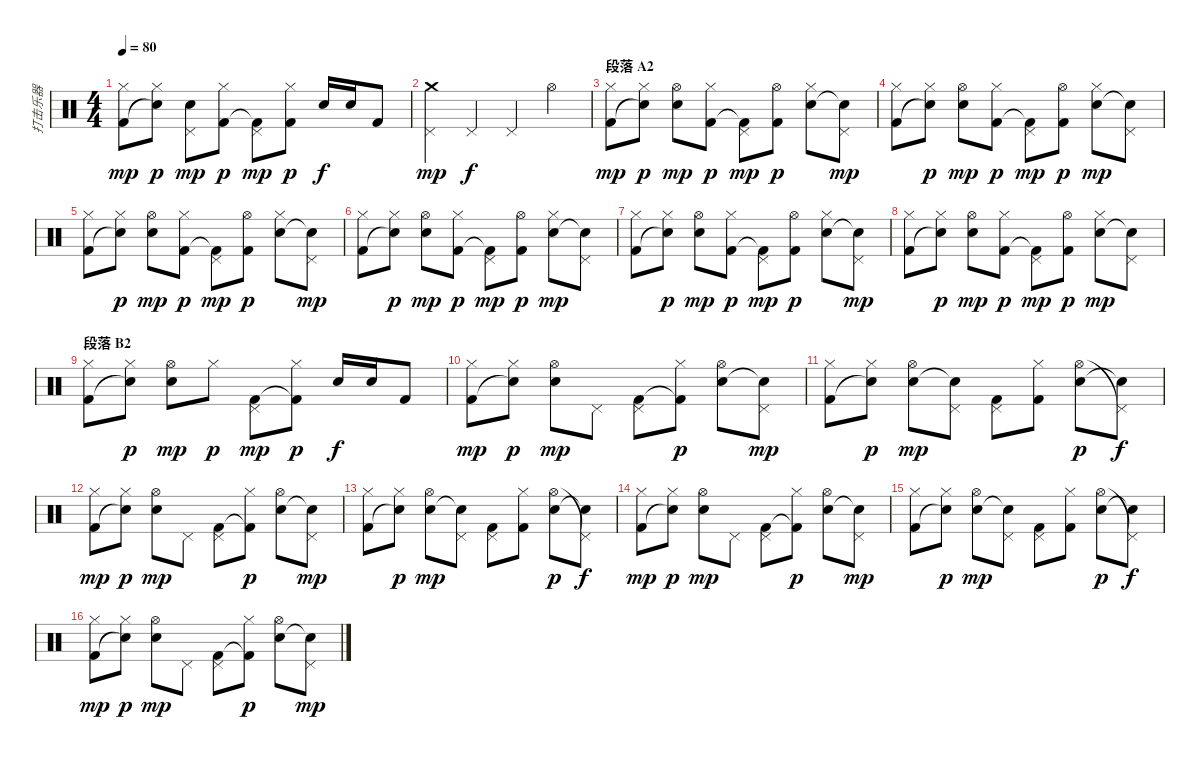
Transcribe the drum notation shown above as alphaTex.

\track ("打击乐器" "打击乐器") {instrument percussion}
\staff {score}
\articulation defaults
\ts (4 4)
\tempo 80
\clef neutral
\ks c
("Hi-Hat (closed)" "Kick (hit) 2").8{dy mp} ("Hi-Hat (closed)" "Snare (hit)"{t}).8{dy p} ("Pedal Hi-Hat (hit)" "Electric Snare (hit)").8{dy mp} ("Hi-Hat (closed)" "Kick (hit) 2").8{dy p} ("Pedal Hi-Hat (hit)" "Kick (hit) 2"{t}).8{dy mp} ("Hi-Hat (closed)" "Kick (hit) 2").8{dy p} "Electric Snare (hit)".16{dy f} "Electric Snare (hit)".16 "Kick (hit) 2".8 |
("Pedal Hi-Hat (hit)" "Crash medium (hit)").4{dy mp} "Pedal Hi-Hat (hit)".4{dy f} "Pedal Hi-Hat (hit)".4 "Hi-Hat (open)".4 |
\section ("" "段落 A2")
("Hi-Hat (closed)" "Kick (hit) 2").8{dy mp} ("Hi-Hat (closed)" "Snare (hit)"{t}).8{dy p} ("Hi-Hat (open)" "Electric Snare (hit)").8{dy mp} ("Hi-Hat (closed)" "Kick (hit) 2").8{dy p} ("Pedal Hi-Hat (hit)" "Kick (hit) 2"{t}).8{dy mp} ("Hi-Hat (open)" "Kick (hit) 2").8{dy p} ("Hi-Hat (closed)" "Electric Snare (hit)").8 ("Pedal Hi-Hat (hit)" "Snare (hit)"{t}).8{dy mp} |
("Hi-Hat (closed)" "Kick (hit) 2").8 ("Hi-Hat (closed)" "Snare (hit)"{t}).8{dy p} ("Hi-Hat (open)" "Electric Snare (hit)").8{dy mp} ("Hi-Hat (closed)" "Kick (hit) 2").8{dy p} ("Pedal Hi-Hat (hit)" "Kick (hit) 2"{t}).8{dy mp} ("Hi-Hat (open)" "Kick (hit) 2").8{dy p} ("Hi-Hat (closed)" "Electric Snare (hit)").8{dy mp} ("Pedal Hi-Hat (hit)" "Snare (hit)"{t}).8 |
("Hi-Hat (closed)" "Kick (hit) 2").8 ("Hi-Hat (closed)" "Snare (hit)"{t}).8{dy p} ("Hi-Hat (open)" "Electric Snare (hit)").8{dy mp} ("Hi-Hat (closed)" "Kick (hit) 2").8{dy p} ("Pedal Hi-Hat (hit)" "Kick (hit) 2"{t}).8{dy mp} ("Hi-Hat (open)" "Kick (hit) 2").8{dy p} ("Hi-Hat (closed)" "Electric Snare (hit)").8 ("Pedal Hi-Hat (hit)" "Snare (hit)"{t}).8{dy mp} |
("Hi-Hat (closed)" "Kick (hit) 2").8 ("Hi-Hat (closed)" "Snare (hit)"{t}).8{dy p} ("Hi-Hat (open)" "Electric Snare (hit)").8{dy mp} ("Hi-Hat (closed)" "Kick (hit) 2").8{dy p} ("Pedal Hi-Hat (hit)" "Kick (hit) 2"{t}).8{dy mp} ("Hi-Hat (open)" "Kick (hit) 2").8{dy p} ("Hi-Hat (closed)" "Electric Snare (hit)").8{dy mp} ("Pedal Hi-Hat (hit)" "Snare (hit)"{t}).8 |
("Hi-Hat (closed)" "Kick (hit) 2").8 ("Hi-Hat (closed)" "Snare (hit)"{t}).8{dy p} ("Hi-Hat (open)" "Electric Snare (hit)").8{dy mp} ("Hi-Hat (closed)" "Kick (hit) 2").8{dy p} ("Pedal Hi-Hat (hit)" "Kick (hit) 2"{t}).8{dy mp} ("Hi-Hat (open)" "Kick (hit) 2").8{dy p} ("Hi-Hat (closed)" "Electric Snare (hit)").8 ("Pedal Hi-Hat (hit)" "Snare (hit)"{t}).8{dy mp} |
("Hi-Hat (closed)" "Kick (hit) 2").8 ("Hi-Hat (closed)" "Snare (hit)"{t}).8{dy p} ("Hi-Hat (open)" "Electric Snare (hit)").8{dy mp} ("Hi-Hat (closed)" "Kick (hit) 2").8{dy p} ("Pedal Hi-Hat (hit)" "Kick (hit) 2"{t}).8{dy mp} ("Hi-Hat (open)" "Kick (hit) 2").8{dy p} ("Hi-Hat (closed)" "Electric Snare (hit)").8{dy mp} ("Pedal Hi-Hat (hit)" "Snare (hit)"{t}).8 |
\section ("" "段落 B2")
("Hi-Hat (closed)" "Kick (hit) 2").8 ("Hi-Hat (closed)" "Snare (hit)"{t}).8{dy p} ("Hi-Hat (open)" "Electric Snare (hit)").8{dy mp} "Hi-Hat (closed)".8{dy p} ("Pedal Hi-Hat (hit)" "Kick (hit) 2").8{dy mp} ("Hi-Hat (closed)" "Kick (hit) 2"{t}).8{dy p} "Electric Snare (hit)".16{dy f} "Electric Snare (hit)".16 "Kick (hit) 2".8 |
("Hi-Hat (closed)" "Kick (hit) 2").8{dy mp} ("Hi-Hat (closed)" "Snare (hit)"{t}).8{dy p} ("Hi-Hat (open)" "Electric Snare (hit)").8{dy mp} "Pedal Hi-Hat (hit)".8 ("Pedal Hi-Hat (hit)" "Kick (hit) 2").8 ("Hi-Hat (closed)" "Kick (hit) 2"{t}).8{dy p} ("Hi-Hat (open)" "Electric Snare (hit)").8 ("Pedal Hi-Hat (hit)" "Snare (hit)"{t}).8{dy mp} |
\section ("" "")
("Hi-Hat (closed)" "Kick (hit) 2").8 ("Hi-Hat (closed)" "Snare (hit)"{t}).8{dy p} ("Hi-Hat (open)" "Electric Snare (hit)").8{dy mp} ("Pedal Hi-Hat (hit)" "Snare (hit)"{t}).8 ("Pedal Hi-Hat (hit)" "Kick (hit) 2").8 ("Hi-Hat (closed)" "Kick (hit) 2").8 ("Hi-Hat (open)" "Electric Snare (hit)").8{dy p} ("Pedal Hi-Hat (hit)"{t} "Snare (hit)"{t}).8{dy f} |
("Hi-Hat (closed)" "Kick (hit) 2").8{dy mp} ("Hi-Hat (closed)" "Snare (hit)"{t}).8{dy p} ("Hi-Hat (open)" "Electric Snare (hit)").8{dy mp} "Pedal Hi-Hat (hit)".8 ("Pedal Hi-Hat (hit)" "Kick (hit) 2").8 ("Hi-Hat (closed)" "Kick (hit) 2"{t}).8{dy p} ("Hi-Hat (open)" "Electric Snare (hit)").8 ("Pedal Hi-Hat (hit)" "Snare (hit)"{t}).8{dy mp} |
("Hi-Hat (closed)" "Kick (hit) 2").8 ("Hi-Hat (closed)" "Snare (hit)"{t}).8{dy p} ("Hi-Hat (open)" "Electric Snare (hit)").8{dy mp} ("Pedal Hi-Hat (hit)" "Snare (hit)"{t}).8 ("Pedal Hi-Hat (hit)" "Kick (hit) 2").8 ("Hi-Hat (closed)" "Kick (hit) 2").8 ("Hi-Hat (open)" "Electric Snare (hit)").8{dy p} ("Pedal Hi-Hat (hit)"{t} "Snare (hit)"{t}).8{dy f} |
("Hi-Hat (closed)" "Kick (hit) 2").8{dy mp} ("Hi-Hat (closed)" "Snare (hit)"{t}).8{dy p} ("Hi-Hat (open)" "Electric Snare (hit)").8{dy mp} "Pedal Hi-Hat (hit)".8 ("Pedal Hi-Hat (hit)" "Kick (hit) 2").8 ("Hi-Hat (closed)" "Kick (hit) 2"{t}).8{dy p} ("Hi-Hat (open)" "Electric Snare (hit)").8 ("Pedal Hi-Hat (hit)" "Snare (hit)"{t}).8{dy mp} |
("Hi-Hat (closed)" "Kick (hit) 2").8 ("Hi-Hat (closed)" "Snare (hit)"{t}).8{dy p} ("Hi-Hat (open)" "Electric Snare (hit)").8{dy mp} ("Pedal Hi-Hat (hit)" "Snare (hit)"{t}).8 ("Pedal Hi-Hat (hit)" "Kick (hit) 2").8 ("Hi-Hat (closed)" "Kick (hit) 2").8 ("Hi-Hat (open)" "Electric Snare (hit)").8{dy p} ("Pedal Hi-Hat (hit)"{t} "Snare (hit)"{t}).8{dy f} |
("Hi-Hat (closed)" "Kick (hit) 2").8{dy mp} ("Hi-Hat (closed)" "Snare (hit)"{t}).8{dy p} ("Hi-Hat (open)" "Electric Snare (hit)").8{dy mp} "Pedal Hi-Hat (hit)".8 ("Pedal Hi-Hat (hit)" "Kick (hit) 2").8 ("Hi-Hat (closed)" "Kick (hit) 2"{t}).8{dy p} ("Hi-Hat (open)" "Electric Snare (hit)").8 ("Pedal Hi-Hat (hit)" "Snare (hit)"{t}).8{dy mp}
